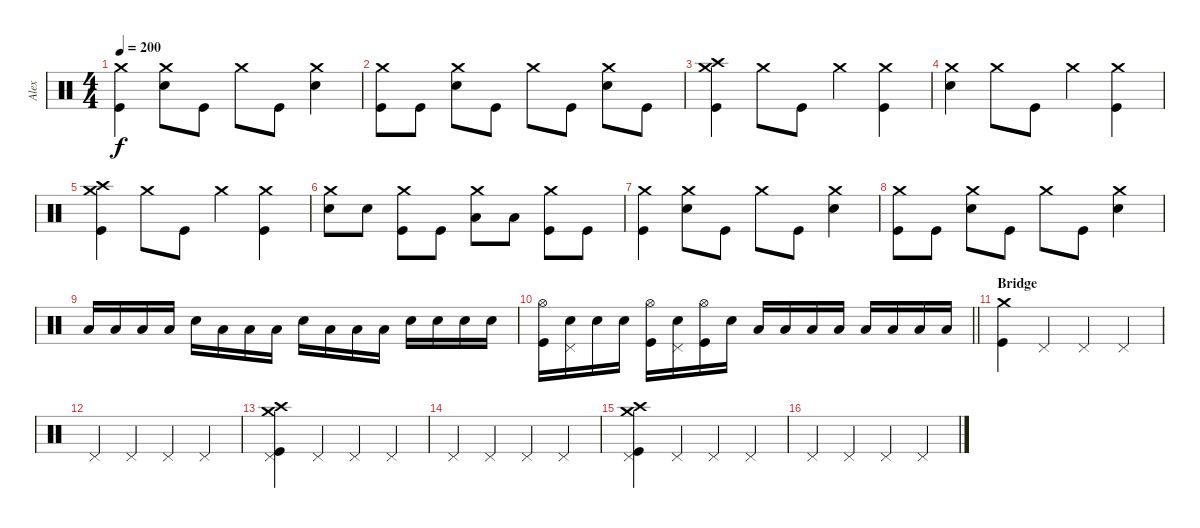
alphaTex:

\track ("Alex" "Alex") {instrument percussion}
\staff {score}
\articulation defaults
\ts (4 4)
\tempo 200
\clef neutral
\ks c
("Crash medium (hit)" "Kick (hit)").4{dy f} ("Crash medium (hit)" "Snare (hit) 2").8 "Kick (hit)".8 "Crash medium (hit)".8 "Kick (hit)".8 ("Crash medium (hit)" "Snare (hit) 2").4 |
("Crash medium (hit)" "Kick (hit)").8 "Kick (hit)".8 ("Crash medium (hit)" "Snare (hit) 2").8 "Kick (hit)".8 "Crash medium (hit)".8 "Kick (hit)".8 ("Crash medium (hit)" "Snare (hit) 2").8 "Kick (hit)".8 |
("Crash medium (hit)" "Crash high (hit)" "Kick (hit)").4 "Crash medium (hit)".8 "Kick (hit)".8 "Crash medium (hit)".4 ("Crash medium (hit)" "Kick (hit)").4 |
("Crash medium (hit)" "Snare (hit) 2").4 "Crash medium (hit)".8 "Kick (hit)".8 "Crash medium (hit)".4 ("Crash medium (hit)" "Kick (hit)").4 |
("Crash medium (hit)" "Crash high (hit)" "Kick (hit)").4 "Crash medium (hit)".8 "Kick (hit)".8 "Crash medium (hit)".4 ("Crash medium (hit)" "Kick (hit)").4 |
("Crash medium (hit)" "Snare (hit) 2").8 "Snare (hit) 2".8 ("Crash medium (hit)" "Kick (hit)").8 "Kick (hit)".8 ("Crash medium (hit)" "Low Tom (hit)").8 "Low Tom (hit)".8 ("Crash medium (hit)" "Kick (hit)").8 "Kick (hit)".8 |
("Crash medium (hit)" "Kick (hit)").4 ("Crash medium (hit)" "Snare (hit) 2").8 "Kick (hit)".8 "Crash medium (hit)".8 "Kick (hit)".8 ("Crash medium (hit)" "Snare (hit) 2").4 |
("Crash medium (hit)" "Kick (hit)").8 "Kick (hit)".8 ("Crash medium (hit)" "Snare (hit) 2").8 "Kick (hit)".8 "Crash medium (hit)".8 "Kick (hit)".8 ("Crash medium (hit)" "Snare (hit) 2").4 |
"Low Tom (hit)".16 "Low Tom (hit)".16 "Low Tom (hit)".16 "Low Tom (hit)".16 "Snare (hit) 2".16 "Low Tom (hit)".16 "Low Tom (hit)".16 "Low Tom (hit)".16 "Snare (hit) 2".16 "Low Tom (hit)".16 "Low Tom (hit)".16 "Low Tom (hit)".16 "Snare (hit) 2".16 "Snare (hit) 2".16 "Snare (hit) 2".16 "Snare (hit) 2".16 |
\barLineRight lightlight
("Hi-Hat (open)" "Kick (hit)").16 ("Snare (hit) 2" "Pedal Hi-Hat (hit)").16 "Snare (hit) 2".16 "Snare (hit) 2".16 ("Hi-Hat (open)" "Kick (hit)").16 ("Snare (hit) 2" "Pedal Hi-Hat (hit)").16 ("Hi-Hat (open)" "Kick (hit)").16 "Snare (hit) 2".16 "Low Tom (hit)".16 "Low Tom (hit)".16 "Low Tom (hit)".16 "Low Tom (hit)".16 "Low Floor Tom (hit)".16 "Low Floor Tom (hit)".16 "Low Floor Tom (hit)".16 "Low Floor Tom (hit)".16 |
\section ("" "Bridge")
("Crash medium (hit)" "Kick (hit)").4 "Pedal Hi-Hat (hit)".4 "Pedal Hi-Hat (hit)".4 "Pedal Hi-Hat (hit)".4 |
"Pedal Hi-Hat (hit)".4 "Pedal Hi-Hat (hit)".4 "Pedal Hi-Hat (hit)".4 "Pedal Hi-Hat (hit)".4 |
("Crash medium (hit)" "Crash high (hit)" "Kick (hit)" "Pedal Hi-Hat (hit)").4 "Pedal Hi-Hat (hit)".4 "Pedal Hi-Hat (hit)".4 "Pedal Hi-Hat (hit)".4 |
"Pedal Hi-Hat (hit)".4 "Pedal Hi-Hat (hit)".4 "Pedal Hi-Hat (hit)".4 "Pedal Hi-Hat (hit)".4 |
("Crash medium (hit)" "Crash high (hit)" "Kick (hit)" "Pedal Hi-Hat (hit)").4 "Pedal Hi-Hat (hit)".4 "Pedal Hi-Hat (hit)".4 "Pedal Hi-Hat (hit)".4 |
"Pedal Hi-Hat (hit)".4 "Pedal Hi-Hat (hit)".4 "Pedal Hi-Hat (hit)".4 "Pedal Hi-Hat (hit)".4
